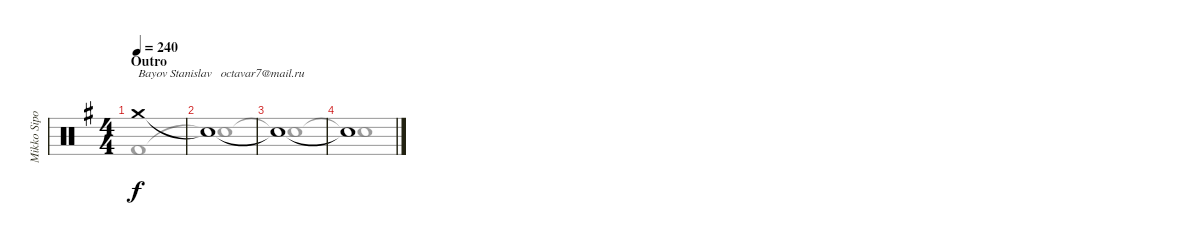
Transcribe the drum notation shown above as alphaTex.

\track ("Mikko Sipola (drums)" "Mikko Sipo") {instrument percussion}
\staff {score}
\articulation defaults
\voice
\ts (4 4)
\section ("" "Outro")
\tempo 240
\clef neutral
\ks eminor "Crash medium (hit)".1{txt "Bayov Stanislav   octavar7@mail.ru" dy f}
|
"Snare (hit)"{t}.1 |
"Snare (hit)"{t}.1 |
"Snare (hit)"{t}.1 |
|
|
|
\voice
\clef neutral
\ottava regular
\simile none
\ks eminor "Kick (hit) 2".1{dy f}
|
"Snare (hit)"{t}.1 |
"Snare (hit)"{t}.1 |
"Snare (hit)"{t}.1 |
|
|
|
